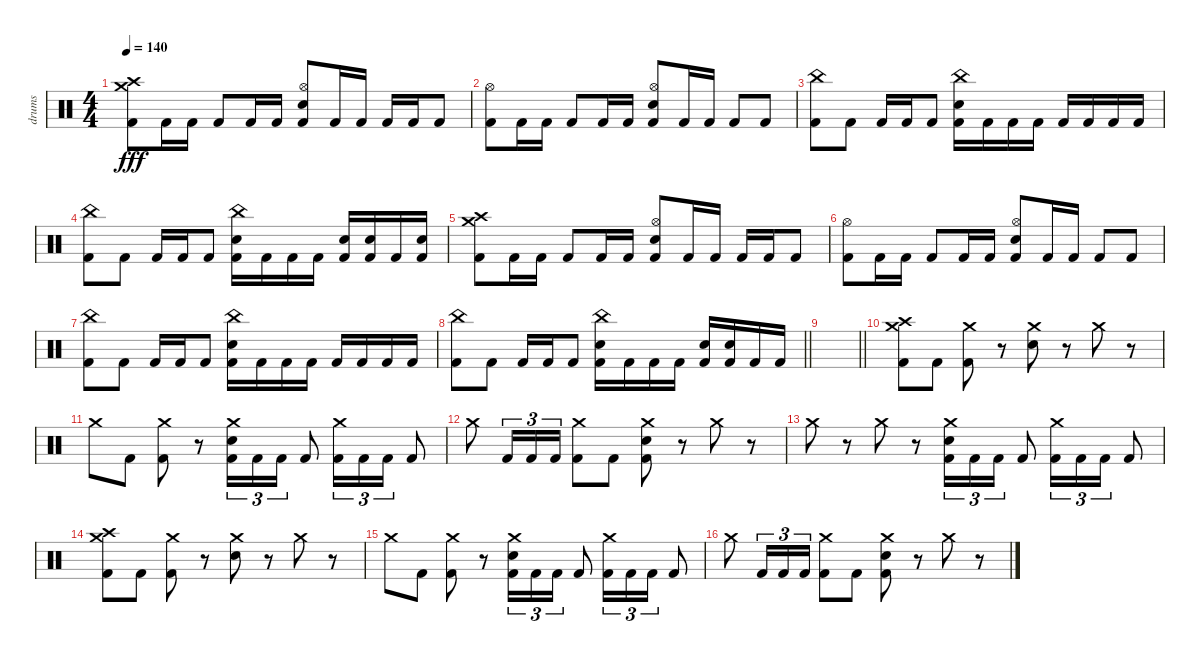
\track ("drums" "drums") {instrument percussion}
\staff {score}
\articulation defaults
\ts (4 4)
\section ("" "")
\tempo 140
\clef neutral
\ks c
("Crash medium (hit)" "Crash high (hit)" "Kick (hit) 2").8{dy fff} "Kick (hit) 2".16 "Kick (hit) 2".16 "Kick (hit) 2".8 "Kick (hit) 2".16 "Kick (hit) 2".16 ("Hi-Hat (open)" "Electric Snare (hit)" "Kick (hit) 2").8 "Kick (hit) 2".16 "Kick (hit) 2".16 "Kick (hit) 2".16 "Kick (hit) 2".16 "Kick (hit) 2".8 |
("Hi-Hat (open)" "Kick (hit) 2").8 "Kick (hit) 2".16 "Kick (hit) 2".16 "Kick (hit) 2".8 "Kick (hit) 2".16 "Kick (hit) 2".16 ("Hi-Hat (open)" "Electric Snare (hit)" "Kick (hit) 2").8 "Kick (hit) 2".16 "Kick (hit) 2".16 "Kick (hit) 2".8 "Kick (hit) 2".8 |
("China (hit)" "Kick (hit) 2").8 "Kick (hit) 2".8 "Kick (hit) 2".16 "Kick (hit) 2".16 "Kick (hit) 2".8 ("China (hit)" "Electric Snare (hit)" "Kick (hit) 2").16 "Kick (hit) 2".16 "Kick (hit) 2".16 "Kick (hit) 2".16 "Kick (hit) 2".16 "Kick (hit) 2".16 "Kick (hit) 2".16 "Kick (hit) 2".16 |
("China (hit)" "Kick (hit) 2").8 "Kick (hit) 2".8 "Kick (hit) 2".16 "Kick (hit) 2".16 "Kick (hit) 2".8 ("China (hit)" "Electric Snare (hit)" "Kick (hit) 2").16 "Kick (hit) 2".16 "Kick (hit) 2".16 "Kick (hit) 2".16 ("Electric Snare (hit)" "Kick (hit) 2").16 ("Electric Snare (hit)" "Kick (hit) 2").16 "Kick (hit) 2".16 ("Electric Snare (hit)" "Kick (hit) 2").16 |
("Crash medium (hit)" "Crash high (hit)" "Kick (hit) 2").8 "Kick (hit) 2".16 "Kick (hit) 2".16 "Kick (hit) 2".8 "Kick (hit) 2".16 "Kick (hit) 2".16 ("Hi-Hat (open)" "Electric Snare (hit)" "Kick (hit) 2").8 "Kick (hit) 2".16 "Kick (hit) 2".16 "Kick (hit) 2".16 "Kick (hit) 2".16 "Kick (hit) 2".8 |
("Hi-Hat (open)" "Kick (hit) 2").8 "Kick (hit) 2".16 "Kick (hit) 2".16 "Kick (hit) 2".8 "Kick (hit) 2".16 "Kick (hit) 2".16 ("Hi-Hat (open)" "Electric Snare (hit)" "Kick (hit) 2").8 "Kick (hit) 2".16 "Kick (hit) 2".16 "Kick (hit) 2".8 "Kick (hit) 2".8 |
("China (hit)" "Kick (hit) 2").8 "Kick (hit) 2".8 "Kick (hit) 2".16 "Kick (hit) 2".16 "Kick (hit) 2".8 ("China (hit)" "Electric Snare (hit)" "Kick (hit) 2").16 "Kick (hit) 2".16 "Kick (hit) 2".16 "Kick (hit) 2".16 "Kick (hit) 2".16 "Kick (hit) 2".16 "Kick (hit) 2".16 "Kick (hit) 2".16 |
\barLineRight lightlight
("China (hit)" "Kick (hit) 2").8 "Kick (hit) 2".8 "Kick (hit) 2".16 "Kick (hit) 2".16 "Kick (hit) 2".8 ("China (hit)" "Electric Snare (hit)" "Kick (hit) 2").16 "Kick (hit) 2".16 "Kick (hit) 2".16 "Kick (hit) 2".16 ("Electric Snare (hit)" "Kick (hit) 2").16 ("Electric Snare (hit)" "Kick (hit) 2").16 "Kick (hit) 2".16 "Kick (hit) 2".16 |
\barLineRight lightlight
|
\section ("" "")
("Crash high (hit)" "Crash medium (hit)" "Kick (hit) 2").8 "Kick (hit) 2".8 ("Crash medium (hit)" "Kick (hit) 2").8 r.8 ("Crash medium (hit)" "Electric Snare (hit)").8 r.8 "Crash medium (hit)".8 r.8 |
"Crash medium (hit)".8 "Kick (hit) 2".8 ("Crash medium (hit)" "Kick (hit) 2").8 r.8 ("Crash medium (hit)" "Electric Snare (hit)" "Kick (hit) 2").16{tu (3 2)} "Kick (hit) 2".16{tu (3 2)} "Kick (hit) 2".16{tu (3 2)} "Kick (hit) 2".8 ("Crash medium (hit)" "Kick (hit) 2").16{tu (3 2)} "Kick (hit) 2".16{tu (3 2)} "Kick (hit) 2".16{tu (3 2)} "Kick (hit) 2".8 |
"Crash medium (hit)".8 "Kick (hit) 2".16{tu (3 2)} "Kick (hit) 2".16{tu (3 2)} "Kick (hit) 2".16{tu (3 2)} ("Crash medium (hit)" "Kick (hit) 2").8 "Kick (hit) 2".8 ("Crash medium (hit)" "Electric Snare (hit)" "Kick (hit) 2").8 r.8 "Crash medium (hit)".8 r.8 |
"Crash medium (hit)".8 r.8 "Crash medium (hit)".8 r.8 ("Crash medium (hit)" "Electric Snare (hit)" "Kick (hit) 2").16{tu (3 2)} "Kick (hit) 2".16{tu (3 2)} "Kick (hit) 2".16{tu (3 2)} "Kick (hit) 2".8 ("Crash medium (hit)" "Kick (hit) 2").16{tu (3 2)} "Kick (hit) 2".16{tu (3 2)} "Kick (hit) 2".16{tu (3 2)} "Kick (hit) 2".8 |
("Crash high (hit)" "Crash medium (hit)" "Kick (hit) 2").8 "Kick (hit) 2".8 ("Crash medium (hit)" "Kick (hit) 2").8 r.8 ("Crash medium (hit)" "Electric Snare (hit)").8 r.8 "Crash medium (hit)".8 r.8 |
"Crash medium (hit)".8 "Kick (hit) 2".8 ("Crash medium (hit)" "Kick (hit) 2").8 r.8 ("Crash medium (hit)" "Electric Snare (hit)" "Kick (hit) 2").16{tu (3 2)} "Kick (hit) 2".16{tu (3 2)} "Kick (hit) 2".16{tu (3 2)} "Kick (hit) 2".8 ("Crash medium (hit)" "Kick (hit) 2").16{tu (3 2)} "Kick (hit) 2".16{tu (3 2)} "Kick (hit) 2".16{tu (3 2)} "Kick (hit) 2".8 |
"Crash medium (hit)".8 "Kick (hit) 2".16{tu (3 2)} "Kick (hit) 2".16{tu (3 2)} "Kick (hit) 2".16{tu (3 2)} ("Crash medium (hit)" "Kick (hit) 2").8 "Kick (hit) 2".8 ("Crash medium (hit)" "Electric Snare (hit)" "Kick (hit) 2").8 r.8 "Crash medium (hit)".8 r.8
